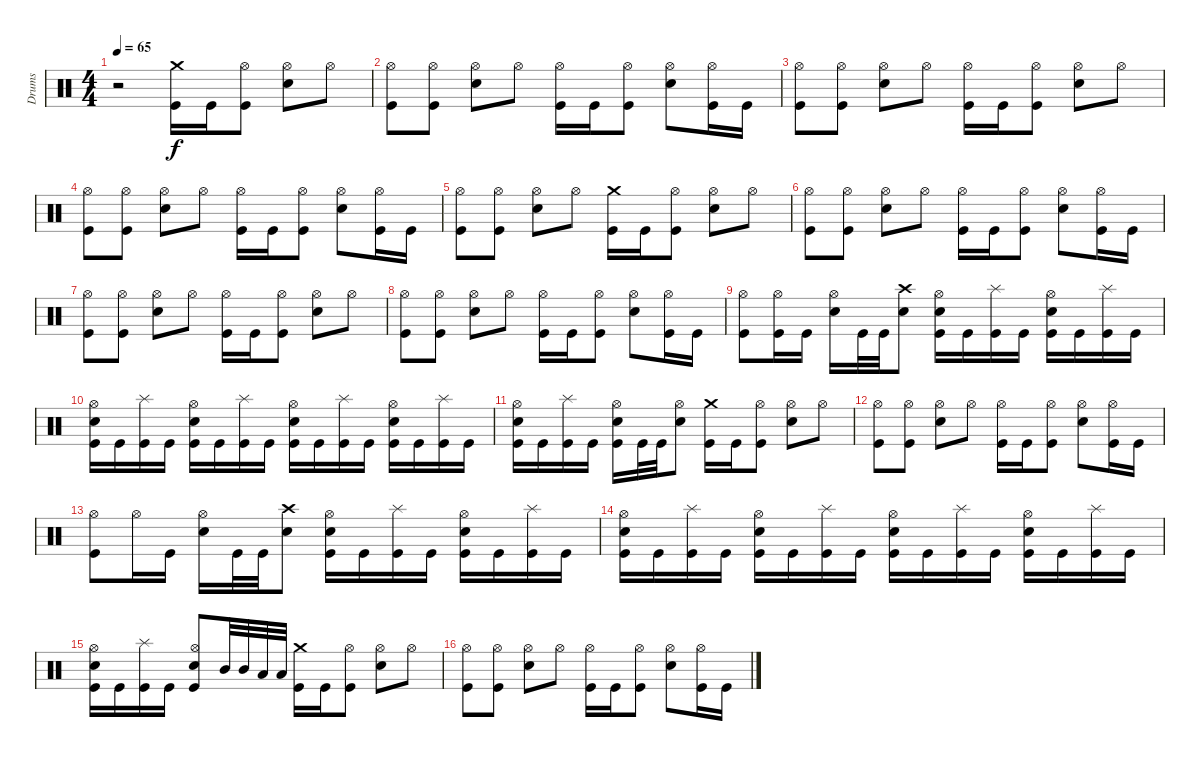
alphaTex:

\track ("Drums" "Drums") {instrument percussion}
\staff {score}
\articulation defaults
\ts (4 4)
\tempo 65
\clef neutral
\ks c
r.2{dy f} ("Crash medium (hit)" "Kick (hit)").16 "Kick (hit)".16 ("Hi-Hat (open)" "Kick (hit)").8 ("Hi-Hat (open)" "Snare (hit) 2").8 "Hi-Hat (open)".8 |
("Hi-Hat (open)" "Kick (hit)").8 ("Hi-Hat (open)" "Kick (hit)").8 ("Hi-Hat (open)" "Snare (hit) 2").8 "Hi-Hat (open)".8 ("Hi-Hat (open)" "Kick (hit)").16 "Kick (hit)".16 ("Hi-Hat (open)" "Kick (hit)").8 ("Hi-Hat (open)" "Snare (hit) 2").8 ("Hi-Hat (open)" "Kick (hit)").16 "Kick (hit)".16 |
("Hi-Hat (open)" "Kick (hit)").8 ("Hi-Hat (open)" "Kick (hit)").8 ("Hi-Hat (open)" "Snare (hit) 2").8 "Hi-Hat (open)".8 ("Hi-Hat (open)" "Kick (hit)").16 "Kick (hit)".16 ("Hi-Hat (open)" "Kick (hit)").8 ("Hi-Hat (open)" "Snare (hit) 2").8 "Hi-Hat (open)".8 |
("Hi-Hat (open)" "Kick (hit)").8 ("Hi-Hat (open)" "Kick (hit)").8 ("Hi-Hat (open)" "Snare (hit) 2").8 "Hi-Hat (open)".8 ("Hi-Hat (open)" "Kick (hit)").16 "Kick (hit)".16 ("Hi-Hat (open)" "Kick (hit)").8 ("Hi-Hat (open)" "Snare (hit) 2").8 ("Hi-Hat (open)" "Kick (hit)").16 "Kick (hit)".16 |
("Hi-Hat (open)" "Kick (hit)").8 ("Hi-Hat (open)" "Kick (hit)").8 ("Hi-Hat (open)" "Snare (hit) 2").8 "Hi-Hat (open)".8 ("Crash medium (hit)" "Kick (hit)").16 "Kick (hit)".16 ("Hi-Hat (open)" "Kick (hit)").8 ("Hi-Hat (open)" "Snare (hit) 2").8 "Hi-Hat (open)".8 |
("Hi-Hat (open)" "Kick (hit)").8 ("Hi-Hat (open)" "Kick (hit)").8 ("Hi-Hat (open)" "Snare (hit) 2").8 "Hi-Hat (open)".8 ("Hi-Hat (open)" "Kick (hit)").16 "Kick (hit)".16 ("Hi-Hat (open)" "Kick (hit)").8 ("Hi-Hat (open)" "Snare (hit) 2").8 ("Hi-Hat (open)" "Kick (hit)").16 "Kick (hit)".16 |
("Hi-Hat (open)" "Kick (hit)").8 ("Hi-Hat (open)" "Kick (hit)").8 ("Hi-Hat (open)" "Snare (hit) 2").8 "Hi-Hat (open)".8 ("Hi-Hat (open)" "Kick (hit)").16 "Kick (hit)".16 ("Hi-Hat (open)" "Kick (hit)").8 ("Hi-Hat (open)" "Snare (hit) 2").8 "Hi-Hat (open)".8 |
("Hi-Hat (open)" "Kick (hit)").8 ("Hi-Hat (open)" "Kick (hit)").8 ("Hi-Hat (open)" "Snare (hit) 2").8 "Hi-Hat (open)".8 ("Hi-Hat (open)" "Kick (hit)").16 "Kick (hit)".16 ("Hi-Hat (open)" "Kick (hit)").8 ("Hi-Hat (open)" "Snare (hit) 2").8 ("Hi-Hat (open)" "Kick (hit)").16 "Kick (hit)".16 |
("Hi-Hat (open)" "Kick (hit)").8 ("Hi-Hat (open)" "Kick (hit)").16 "Kick (hit)".16 ("Hi-Hat (open)" "Snare (hit) 2").16 "Kick (hit)".32 "Kick (hit)".32 ("Crash high (hit)" "Snare (hit) 2").8 ("Hi-Hat (open)" "Snare (hit) 2" "Kick (hit)").16 "Kick (hit)".16 ("Splash (hit)" "Kick (hit)").16 "Kick (hit)".16 ("Hi-Hat (open)" "Snare (hit) 2" "Kick (hit)").16 "Kick (hit)".16 ("Splash (hit)" "Kick (hit)").16 "Kick (hit)".16 |
("Hi-Hat (open)" "Snare (hit) 2" "Kick (hit)").16 "Kick (hit)".16 ("Splash (hit)" "Kick (hit)").16 "Kick (hit)".16 ("Hi-Hat (open)" "Snare (hit) 2" "Kick (hit)").16 "Kick (hit)".16 ("Splash (hit)" "Kick (hit)").16 "Kick (hit)".16 ("Hi-Hat (open)" "Snare (hit) 2" "Kick (hit)").16 "Kick (hit)".16 ("Splash (hit)" "Kick (hit)").16 "Kick (hit)".16 ("Hi-Hat (open)" "Snare (hit) 2" "Kick (hit)").16 "Kick (hit)".16 ("Splash (hit)" "Kick (hit)").16 "Kick (hit)".16 |
("Hi-Hat (open)" "Snare (hit) 2" "Kick (hit)").16 "Kick (hit)".16 ("Splash (hit)" "Kick (hit)").16 "Kick (hit)".16 ("Hi-Hat (open)" "Snare (hit) 2" "Kick (hit)").16 "Kick (hit)".32 "Kick (hit)".32 ("Hi-Hat (open)" "Snare (hit) 2").8 ("Crash medium (hit)" "Kick (hit)").16 "Kick (hit)".16 ("Hi-Hat (open)" "Kick (hit)").8 ("Hi-Hat (open)" "Snare (hit) 2").8 "Hi-Hat (open)".8 |
("Hi-Hat (open)" "Kick (hit)").8 ("Hi-Hat (open)" "Kick (hit)").8 ("Hi-Hat (open)" "Snare (hit) 2").8 "Hi-Hat (open)".8 ("Hi-Hat (open)" "Kick (hit)").16 "Kick (hit)".16 ("Hi-Hat (open)" "Kick (hit)").8 ("Hi-Hat (open)" "Snare (hit) 2").8 ("Hi-Hat (open)" "Kick (hit)").16 "Kick (hit)".16 |
("Hi-Hat (open)" "Kick (hit)").8 "Hi-Hat (open)".16 "Kick (hit)".16 ("Hi-Hat (open)" "Snare (hit) 2").16 "Kick (hit)".32 "Kick (hit)".32 ("Crash high (hit)" "Snare (hit) 2").8 ("Hi-Hat (open)" "Snare (hit) 2" "Kick (hit)").16 "Kick (hit)".16 ("Splash (hit)" "Kick (hit)").16 "Kick (hit)".16 ("Hi-Hat (open)" "Snare (hit) 2" "Kick (hit)").16 "Kick (hit)".16 ("Splash (hit)" "Kick (hit)").16 "Kick (hit)".16 |
("Hi-Hat (open)" "Snare (hit) 2" "Kick (hit)").16 "Kick (hit)".16 ("Splash (hit)" "Kick (hit)").16 "Kick (hit)".16 ("Hi-Hat (open)" "Snare (hit) 2" "Kick (hit)").16 "Kick (hit)".16 ("Splash (hit)" "Kick (hit)").16 "Kick (hit)".16 ("Hi-Hat (open)" "Snare (hit) 2" "Kick (hit)").16 "Kick (hit)".16 ("Splash (hit)" "Kick (hit)").16 "Kick (hit)".16 ("Hi-Hat (open)" "Snare (hit) 2" "Kick (hit)").16 "Kick (hit)".16 ("Splash (hit)" "Kick (hit)").16 "Kick (hit)".16 |
("Hi-Hat (open)" "Snare (hit) 2" "Kick (hit)").16 "Kick (hit)".16 ("Splash (hit)" "Kick (hit)").16 "Kick (hit)".16 ("Hi-Hat (open)" "Snare (hit) 2" "Kick (hit)").8 "Mid Tom (hit)".32 "Mid Tom (hit)".32 "Low Tom (hit)".32 "Low Tom (hit)".32 ("Crash medium (hit)" "Kick (hit)").16 "Kick (hit)".16 ("Hi-Hat (open)" "Kick (hit)").8 ("Hi-Hat (open)" "Snare (hit) 2").8 "Hi-Hat (open)".8 |
("Hi-Hat (open)" "Kick (hit)").8 ("Hi-Hat (open)" "Kick (hit)").8 ("Hi-Hat (open)" "Snare (hit) 2").8 "Hi-Hat (open)".8 ("Hi-Hat (open)" "Kick (hit)").16 "Kick (hit)".16 ("Hi-Hat (open)" "Kick (hit)").8 ("Hi-Hat (open)" "Snare (hit) 2").8 ("Hi-Hat (open)" "Kick (hit)").16 "Kick (hit)".16
